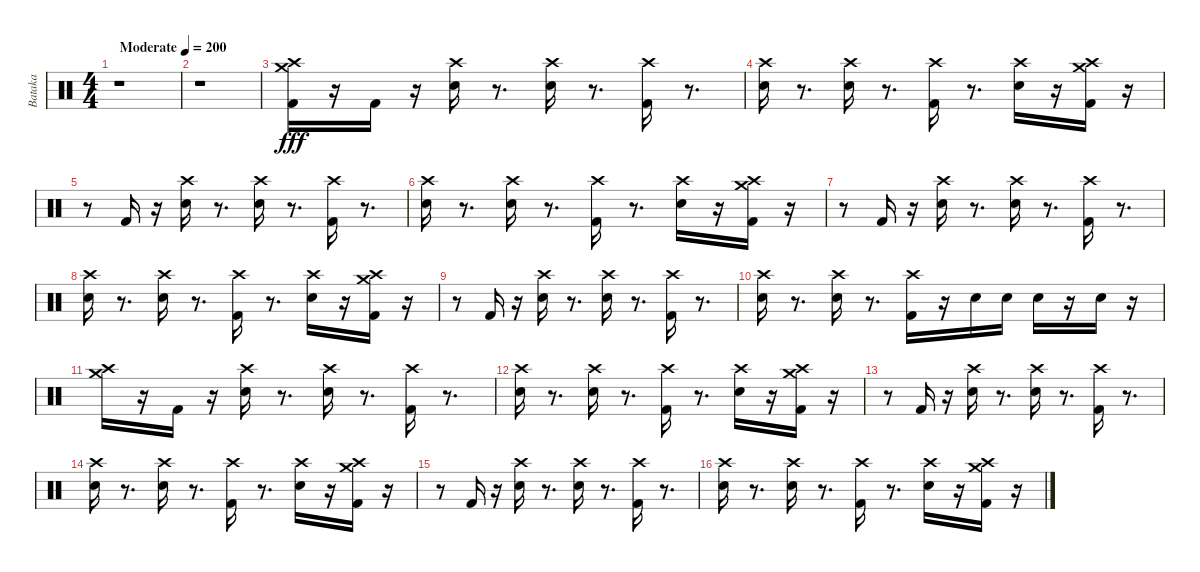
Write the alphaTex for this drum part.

\track ("Bataka" "Bataka") {instrument percussion}
\staff {score}
\articulation defaults
\ts (4 4)
\tempo (200 "Moderate")
\clef neutral
\ks c
r.1{dy fff} |
r.1 |
("Crash medium (hit)" "Crash high (hit)" "Kick (hit) 2").16 r.16 "Kick (hit) 2".16 r.16 ("Crash high (hit)" "Electric Snare (hit)").16 r.8{d} ("Crash high (hit)" "Electric Snare (hit)").16 r.8{d} ("Crash high (hit)" "Kick (hit) 2").16 r.8{d} |
("Crash high (hit)" "Electric Snare (hit)").16 r.8{d} ("Crash high (hit)" "Electric Snare (hit)").16 r.8{d} ("Crash high (hit)" "Kick (hit) 2").16 r.8{d} ("Crash high (hit)" "Electric Snare (hit)").16 r.16 ("Crash medium (hit)" "Crash high (hit)" "Kick (hit) 2").16 r.16 |
r.8 "Kick (hit) 2".16 r.16 ("Crash high (hit)" "Electric Snare (hit)").16 r.8{d} ("Crash high (hit)" "Electric Snare (hit)").16 r.8{d} ("Crash high (hit)" "Kick (hit) 2").16 r.8{d} |
("Crash high (hit)" "Electric Snare (hit)").16 r.8{d} ("Crash high (hit)" "Electric Snare (hit)").16 r.8{d} ("Crash high (hit)" "Kick (hit) 2").16 r.8{d} ("Crash high (hit)" "Electric Snare (hit)").16 r.16 ("Crash medium (hit)" "Crash high (hit)" "Kick (hit) 2").16 r.16 |
r.8 "Kick (hit) 2".16 r.16 ("Crash high (hit)" "Electric Snare (hit)").16 r.8{d} ("Crash high (hit)" "Electric Snare (hit)").16 r.8{d} ("Crash high (hit)" "Kick (hit) 2").16 r.8{d} |
("Crash high (hit)" "Electric Snare (hit)").16 r.8{d} ("Crash high (hit)" "Electric Snare (hit)").16 r.8{d} ("Crash high (hit)" "Kick (hit) 2").16 r.8{d} ("Crash high (hit)" "Electric Snare (hit)").16 r.16 ("Crash medium (hit)" "Crash high (hit)" "Kick (hit) 2").16 r.16 |
r.8 "Kick (hit) 2".16 r.16 ("Crash high (hit)" "Electric Snare (hit)").16 r.8{d} ("Crash high (hit)" "Electric Snare (hit)").16 r.8{d} ("Crash high (hit)" "Kick (hit) 2").16 r.8{d} |
("Crash high (hit)" "Electric Snare (hit)").16 r.8{d} ("Crash high (hit)" "Electric Snare (hit)").16 r.8{d} ("Crash high (hit)" "Kick (hit) 2").16 r.16 "Electric Snare (hit)".16 "Electric Snare (hit)".16 "Electric Snare (hit)".16 r.16 "Electric Snare (hit)".16 r.16 |
("Crash medium (hit)" "Crash high (hit)").16 r.16 "Kick (hit) 2".16 r.16 ("Crash high (hit)" "Electric Snare (hit)").16 r.8{d} ("Crash high (hit)" "Electric Snare (hit)").16 r.8{d} ("Crash high (hit)" "Kick (hit) 2").16 r.8{d} |
("Crash high (hit)" "Electric Snare (hit)").16 r.8{d} ("Crash high (hit)" "Electric Snare (hit)").16 r.8{d} ("Crash high (hit)" "Kick (hit) 2").16 r.8{d} ("Crash high (hit)" "Electric Snare (hit)").16 r.16 ("Crash medium (hit)" "Crash high (hit)" "Kick (hit) 2").16 r.16 |
r.8 "Kick (hit) 2".16 r.16 ("Crash high (hit)" "Electric Snare (hit)").16 r.8{d} ("Crash high (hit)" "Electric Snare (hit)").16 r.8{d} ("Crash high (hit)" "Kick (hit) 2").16 r.8{d} |
("Crash high (hit)" "Electric Snare (hit)").16 r.8{d} ("Crash high (hit)" "Electric Snare (hit)").16 r.8{d} ("Crash high (hit)" "Kick (hit) 2").16 r.8{d} ("Crash high (hit)" "Electric Snare (hit)").16 r.16 ("Crash medium (hit)" "Crash high (hit)" "Kick (hit) 2").16 r.16 |
r.8 "Kick (hit) 2".16 r.16 ("Crash high (hit)" "Electric Snare (hit)").16 r.8{d} ("Crash high (hit)" "Electric Snare (hit)").16 r.8{d} ("Crash high (hit)" "Kick (hit) 2").16 r.8{d} |
("Crash high (hit)" "Electric Snare (hit)").16 r.8{d} ("Crash high (hit)" "Electric Snare (hit)").16 r.8{d} ("Crash high (hit)" "Kick (hit) 2").16 r.8{d} ("Crash high (hit)" "Electric Snare (hit)").16 r.16 ("Crash medium (hit)" "Crash high (hit)" "Kick (hit) 2").16 r.16
